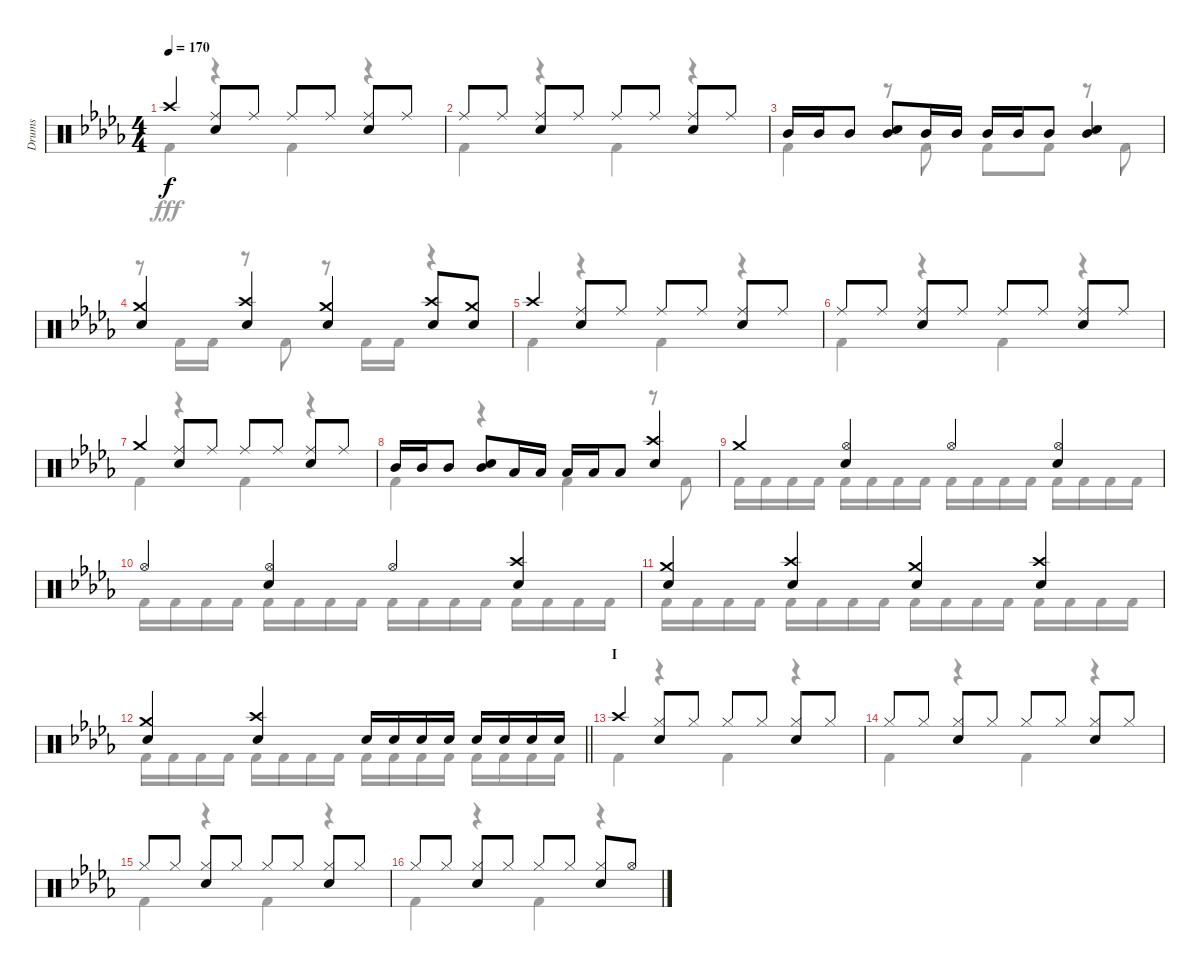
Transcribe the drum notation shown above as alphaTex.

\track ("Drums" "Drums") {instrument percussion}
\staff {score}
\articulation defaults
\voice
\ts (4 4)
\tempo 170
\clef neutral
\ks db "Crash high (hit)".4{dy f}
("Ride (middle)" "Snare (hit) 2").8 "Ride (middle)".8 "Ride (middle)".8 "Ride (middle)".8 ("Ride (middle)" "Snare (hit) 2").8 "Ride (middle)".8 |
"Ride (middle)".8 "Ride (middle)".8 ("Ride (middle)" "Snare (hit) 2").8 "Ride (middle)".8 "Ride (middle)".8 "Ride (middle)".8 ("Ride (middle)" "Snare (hit) 2").8 "Ride (middle)".8 |
"Mid Tom (hit)".16 "Mid Tom (hit)".16 "Mid Tom (hit)".8 ("Mid Tom (hit)" "Snare (hit) 2").8 "Mid Tom (hit)".16 "Mid Tom (hit)".16 "Mid Tom (hit)".16 "Mid Tom (hit)".16 "Mid Tom (hit)".8 ("Mid Tom (hit)" "Snare (hit) 2").4 |
("Crash medium (hit)" "Snare (hit) 2").4 ("Crash high (hit)" "Snare (hit) 2").4 ("Crash medium (hit)" "Snare (hit) 2").4 ("Crash high (hit)" "Snare (hit) 2").8 ("Crash medium (hit)" "Snare (hit) 2").8 |
"Crash high (hit)".4 ("Ride (middle)" "Snare (hit) 2").8 "Ride (middle)".8 "Ride (middle)".8 "Ride (middle)".8 ("Ride (middle)" "Snare (hit) 2").8 "Ride (middle)".8 |
"Ride (middle)".8 "Ride (middle)".8 ("Ride (middle)" "Snare (hit) 2").8 "Ride (middle)".8 "Ride (middle)".8 "Ride (middle)".8 ("Ride (middle)" "Snare (hit) 2").8 "Ride (middle)".8 |
"Crash medium (hit)".4 ("Ride (middle)" "Snare (hit) 2").8 "Ride (middle)".8 "Ride (middle)".8 "Ride (middle)".8 ("Ride (middle)" "Snare (hit) 2").8 "Ride (middle)".8 |
"Mid Tom (hit)".16 "Mid Tom (hit)".16 "Mid Tom (hit)".8 ("Mid Tom (hit)" "Snare (hit) 2").8 "Low Tom (hit)".16 "Low Tom (hit)".16 "Low Tom (hit)".16 "Low Tom (hit)".16 "Low Tom (hit)".8 ("Crash high (hit)" "Snare (hit) 2").4 |
"Crash medium (hit)".4 ("Hi-Hat (open)" "Snare (hit) 2").4 "Hi-Hat (open)".4 ("Hi-Hat (open)" "Snare (hit) 2").4 |
"Hi-Hat (open)".4 ("Hi-Hat (open)" "Snare (hit) 2").4 "Hi-Hat (open)".4 ("Crash high (hit)" "Snare (hit) 2").4 |
("Crash medium (hit)" "Snare (hit) 2").4 ("Crash high (hit)" "Snare (hit) 2").4 ("Crash medium (hit)" "Snare (hit) 2").4 ("Crash high (hit)" "Snare (hit) 2").4 |
\barLineRight lightlight
("Crash medium (hit)" "Snare (hit) 2").4 ("Crash high (hit)" "Snare (hit) 2").4 "Snare (hit) 2".16 "Snare (hit) 2".16 "Snare (hit) 2".16 "Snare (hit) 2".16 "Snare (hit) 2".16 "Snare (hit) 2".16 "Snare (hit) 2".16 "Snare (hit) 2".16 |
\section ("" "I")
"Crash high (hit)".4 ("Hi-Hat (closed)" "Snare (hit) 2").8 "Hi-Hat (closed)".8 "Hi-Hat (closed)".8 "Hi-Hat (closed)".8 ("Hi-Hat (closed)" "Snare (hit) 2").8 "Hi-Hat (closed)".8 |
"Hi-Hat (closed)".8 "Hi-Hat (closed)".8 ("Hi-Hat (closed)" "Snare (hit) 2").8 "Hi-Hat (closed)".8 "Hi-Hat (closed)".8 "Hi-Hat (closed)".8 ("Hi-Hat (closed)" "Snare (hit) 2").8 "Hi-Hat (closed)".8 |
"Hi-Hat (closed)".8 "Hi-Hat (closed)".8 ("Hi-Hat (closed)" "Snare (hit) 2").8 "Hi-Hat (closed)".8 "Hi-Hat (closed)".8 "Hi-Hat (closed)".8 ("Hi-Hat (closed)" "Snare (hit) 2").8 "Hi-Hat (closed)".8 |
"Hi-Hat (closed)".8 "Hi-Hat (closed)".8 ("Hi-Hat (closed)" "Snare (hit) 2").8 "Hi-Hat (closed)".8 "Hi-Hat (closed)".8 "Hi-Hat (closed)".8 ("Hi-Hat (closed)" "Snare (hit) 2").8 "Hi-Hat (open)".8
\voice
\clef neutral
\ottava regular
\simile none
\ks db "Kick (hit) 2".4{dy fff}
r.4 "Kick (hit) 2".4 r.4 |
"Kick (hit) 2".4 r.4 "Kick (hit) 2".4 r.4 |
"Kick (hit) 2".4 r.8 "Kick (hit) 2".8 "Kick (hit) 2".8 "Kick (hit) 2".8 r.8 "Kick (hit) 2".8 |
r.8 "Kick (hit) 2".16 "Kick (hit) 2".16 r.8 "Kick (hit) 2".8 r.8 "Kick (hit) 2".16 "Kick (hit) 2".16 r.4 |
"Kick (hit) 2".4 r.4 "Kick (hit) 2".4 r.4 |
"Kick (hit) 2".4 r.4 "Kick (hit) 2".4 r.4 |
"Kick (hit) 2".4 r.4 "Kick (hit) 2".4 r.4 |
"Kick (hit) 2".4 r.4 "Kick (hit) 2".4 r.8 "Kick (hit) 2".8 |
"Kick (hit) 2".16 "Kick (hit) 2".16 "Kick (hit) 2".16 "Kick (hit) 2".16 "Kick (hit) 2".16 "Kick (hit) 2".16 "Kick (hit) 2".16 "Kick (hit) 2".16 "Kick (hit) 2".16 "Kick (hit) 2".16 "Kick (hit) 2".16 "Kick (hit) 2".16 "Kick (hit) 2".16 "Kick (hit) 2".16 "Kick (hit) 2".16 "Kick (hit) 2".16 |
"Kick (hit) 2".16 "Kick (hit) 2".16 "Kick (hit) 2".16 "Kick (hit) 2".16 "Kick (hit) 2".16 "Kick (hit) 2".16 "Kick (hit) 2".16 "Kick (hit) 2".16 "Kick (hit) 2".16 "Kick (hit) 2".16 "Kick (hit) 2".16 "Kick (hit) 2".16 "Kick (hit) 2".16 "Kick (hit) 2".16 "Kick (hit) 2".16 "Kick (hit) 2".16 |
"Kick (hit) 2".16 "Kick (hit) 2".16 "Kick (hit) 2".16 "Kick (hit) 2".16 "Kick (hit) 2".16 "Kick (hit) 2".16 "Kick (hit) 2".16 "Kick (hit) 2".16 "Kick (hit) 2".16 "Kick (hit) 2".16 "Kick (hit) 2".16 "Kick (hit) 2".16 "Kick (hit) 2".16 "Kick (hit) 2".16 "Kick (hit) 2".16 "Kick (hit) 2".16 |
\barLineRight lightlight "Kick (hit) 2".16 "Kick (hit) 2".16 "Kick (hit) 2".16 "Kick (hit) 2".16 "Kick (hit) 2".16 "Kick (hit) 2".16 "Kick (hit) 2".16 "Kick (hit) 2".16 "Kick (hit) 2".16 "Kick (hit) 2".16 "Kick (hit) 2".16 "Kick (hit) 2".16 "Kick (hit) 2".16 "Kick (hit) 2".16 "Kick (hit) 2".16 "Kick (hit) 2".16
|
"Kick (hit) 2".4 r.4 "Kick (hit) 2".4 r.4 |
"Kick (hit) 2".4 r.4 "Kick (hit) 2".4 r.4 |
"Kick (hit) 2".4 r.4 "Kick (hit) 2".4 r.4 |
"Kick (hit) 2".4 r.4 "Kick (hit) 2".4 r.4
